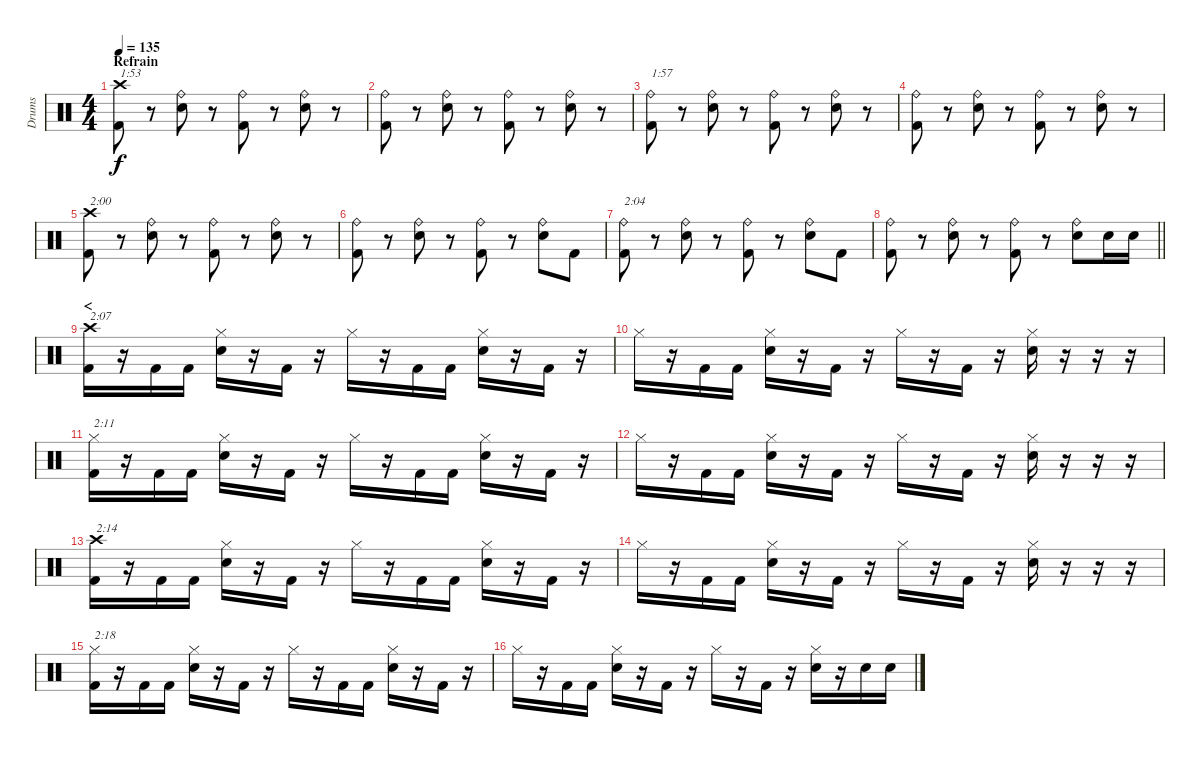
\track ("Drums" "Drums") {instrument percussion}
\staff {score}
\articulation defaults
\ts (4 4)
\section ("" "Refrain")
\tempo 135
\clef neutral
\ks c
("Crash high (hit)" "Kick (hit) 2").8{txt "1:53" dy f} r.8 ("Ride (bell)" "Electric Snare (hit)").8 r.8 ("Ride (bell)" "Kick (hit) 2").8 r.8 ("Ride (bell)" "Electric Snare (hit)").8 r.8 |
("Ride (bell)" "Kick (hit) 2").8 r.8 ("Ride (bell)" "Electric Snare (hit)").8 r.8 ("Ride (bell)" "Kick (hit) 2").8 r.8 ("Ride (bell)" "Electric Snare (hit)").8 r.8 |
("Ride (bell)" "Kick (hit) 2").8{txt "1:57"} r.8 ("Ride (bell)" "Electric Snare (hit)").8 r.8 ("Ride (bell)" "Kick (hit) 2").8 r.8 ("Ride (bell)" "Electric Snare (hit)").8 r.8 |
("Ride (bell)" "Kick (hit) 2").8 r.8 ("Ride (bell)" "Electric Snare (hit)").8 r.8 ("Ride (bell)" "Kick (hit) 2").8 r.8 ("Ride (bell)" "Electric Snare (hit)").8 r.8 |
("Crash high (hit)" "Kick (hit) 2").8{txt "2:00"} r.8 ("Ride (bell)" "Electric Snare (hit)").8 r.8 ("Ride (bell)" "Kick (hit) 2").8 r.8 ("Ride (bell)" "Electric Snare (hit)").8 r.8 |
("Ride (bell)" "Kick (hit) 2").8 r.8 ("Ride (bell)" "Electric Snare (hit)").8 r.8 ("Ride (bell)" "Kick (hit) 2").8 r.8 ("Ride (bell)" "Electric Snare (hit)").8 "Kick (hit) 2".8 |
("Ride (bell)" "Kick (hit) 2").8{txt "2:04"} r.8 ("Ride (bell)" "Electric Snare (hit)").8 r.8 ("Ride (bell)" "Kick (hit) 2").8 r.8 ("Ride (bell)" "Electric Snare (hit)").8 "Kick (hit) 2".8 |
\barLineRight lightlight
("Ride (bell)" "Kick (hit) 2").8 r.8 ("Ride (bell)" "Electric Snare (hit)").8 r.8 ("Ride (bell)" "Kick (hit) 2").8 r.8 ("Ride (bell)" "Electric Snare (hit)").8 "Electric Snare (hit)".16 "Electric Snare (hit)".16 |
\section ("" "<")
("Crash high (hit)" "Kick (hit) 2").16{txt "2:07"} r.16 "Kick (hit) 2".16 "Kick (hit) 2".16 ("Hi-Hat (closed)" "Electric Snare (hit)").16 r.16 "Kick (hit) 2".16 r.16 "Hi-Hat (closed)".16 r.16 "Kick (hit) 2".16 "Kick (hit) 2".16 ("Hi-Hat (closed)" "Electric Snare (hit)").16 r.16 "Kick (hit) 2".16 r.16 |
"Hi-Hat (closed)".16 r.16 "Kick (hit) 2".16 "Kick (hit) 2".16 ("Hi-Hat (closed)" "Electric Snare (hit)").16 r.16 "Kick (hit) 2".16 r.16 "Hi-Hat (closed)".16 r.16 "Kick (hit) 2".16 r.16 ("Hi-Hat (closed)" "Electric Snare (hit)").16 r.16 r.16 r.16 |
("Hi-Hat (closed)" "Kick (hit) 2").16{txt "2:11"} r.16 "Kick (hit) 2".16 "Kick (hit) 2".16 ("Hi-Hat (closed)" "Electric Snare (hit)").16 r.16 "Kick (hit) 2".16 r.16 "Hi-Hat (closed)".16 r.16 "Kick (hit) 2".16 "Kick (hit) 2".16 ("Hi-Hat (closed)" "Electric Snare (hit)").16 r.16 "Kick (hit) 2".16 r.16 |
"Hi-Hat (closed)".16 r.16 "Kick (hit) 2".16 "Kick (hit) 2".16 ("Hi-Hat (closed)" "Electric Snare (hit)").16 r.16 "Kick (hit) 2".16 r.16 "Hi-Hat (closed)".16 r.16 "Kick (hit) 2".16 r.16 ("Hi-Hat (closed)" "Electric Snare (hit)").16 r.16 r.16 r.16 |
("Crash high (hit)" "Kick (hit) 2").16{txt "2:14"} r.16 "Kick (hit) 2".16 "Kick (hit) 2".16 ("Hi-Hat (closed)" "Electric Snare (hit)").16 r.16 "Kick (hit) 2".16 r.16 "Hi-Hat (closed)".16 r.16 "Kick (hit) 2".16 "Kick (hit) 2".16 ("Hi-Hat (closed)" "Electric Snare (hit)").16 r.16 "Kick (hit) 2".16 r.16 |
"Hi-Hat (closed)".16 r.16 "Kick (hit) 2".16 "Kick (hit) 2".16 ("Hi-Hat (closed)" "Electric Snare (hit)").16 r.16 "Kick (hit) 2".16 r.16 "Hi-Hat (closed)".16 r.16 "Kick (hit) 2".16 r.16 ("Hi-Hat (closed)" "Electric Snare (hit)").16 r.16 r.16 r.16 |
("Hi-Hat (closed)" "Kick (hit) 2").16{txt "2:18"} r.16 "Kick (hit) 2".16 "Kick (hit) 2".16 ("Hi-Hat (closed)" "Electric Snare (hit)").16 r.16 "Kick (hit) 2".16 r.16 "Hi-Hat (closed)".16 r.16 "Kick (hit) 2".16 "Kick (hit) 2".16 ("Hi-Hat (closed)" "Electric Snare (hit)").16 r.16 "Kick (hit) 2".16 r.16 |
"Hi-Hat (closed)".16 r.16 "Kick (hit) 2".16 "Kick (hit) 2".16 ("Hi-Hat (closed)" "Electric Snare (hit)").16 r.16 "Kick (hit) 2".16 r.16 "Hi-Hat (closed)".16 r.16 "Kick (hit) 2".16 r.16 ("Hi-Hat (closed)" "Electric Snare (hit)").16 r.16 "Electric Snare (hit)".16 "Electric Snare (hit)".16
